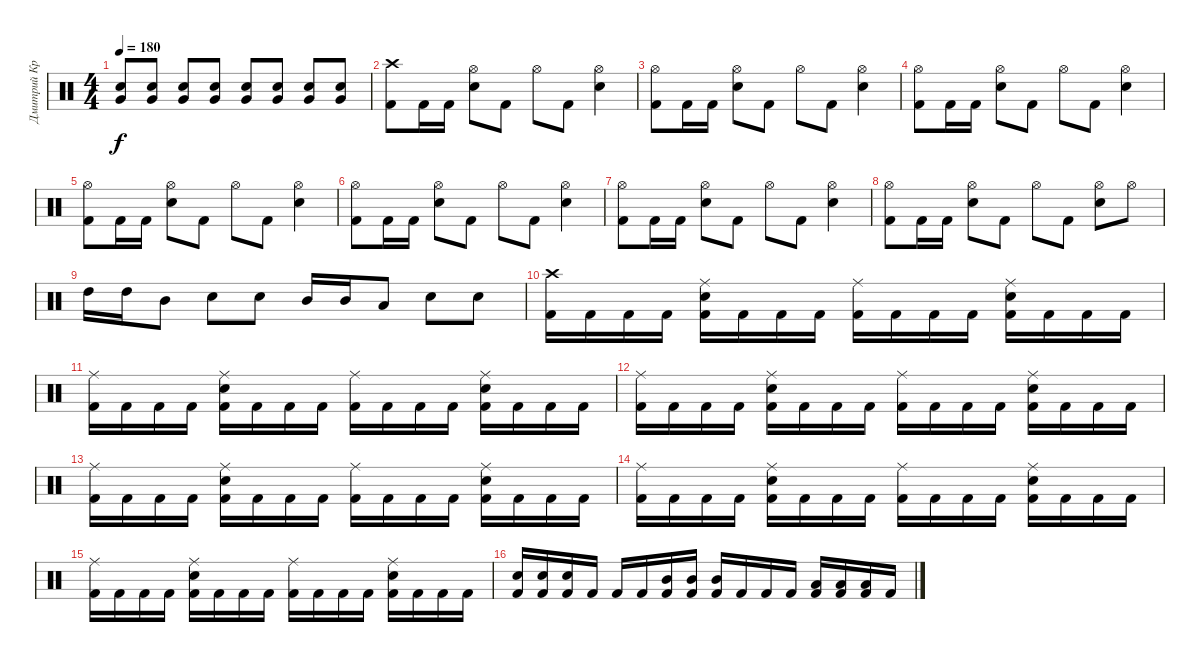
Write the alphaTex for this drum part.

\track ("Дмитрий Кривенков" "Дмитрий Кр") {instrument percussion}
\staff {score}
\articulation defaults
\ts (4 4)
\tempo 180
\clef neutral
\ks c
("Electric Snare (hit)" "Very Low Tom (hit)").8{dy f} ("Electric Snare (hit)" "Very Low Tom (hit)").8 ("Electric Snare (hit)" "Very Low Tom (hit)").8 ("Electric Snare (hit)" "Very Low Tom (hit)").8 ("Electric Snare (hit)" "Very Low Tom (hit)").8 ("Electric Snare (hit)" "Very Low Tom (hit)").8 ("Electric Snare (hit)" "Very Low Tom (hit)").8 ("Electric Snare (hit)" "Very Low Tom (hit)").8 |
("Crash high (hit)" "Kick (hit) 2").8 "Kick (hit) 2".16 "Kick (hit) 2".16 ("Hi-Hat (open)" "Electric Snare (hit)").8 "Kick (hit) 2".8 "Hi-Hat (open)".8 "Kick (hit) 2".8 ("Hi-Hat (open)" "Electric Snare (hit)").4 |
("Hi-Hat (open)" "Kick (hit) 2").8 "Kick (hit) 2".16 "Kick (hit) 2".16 ("Hi-Hat (open)" "Electric Snare (hit)").8 "Kick (hit) 2".8 "Hi-Hat (open)".8 "Kick (hit) 2".8 ("Hi-Hat (open)" "Electric Snare (hit)").4 |
("Hi-Hat (open)" "Kick (hit) 2").8 "Kick (hit) 2".16 "Kick (hit) 2".16 ("Hi-Hat (open)" "Electric Snare (hit)").8 "Kick (hit) 2".8 "Hi-Hat (open)".8 "Kick (hit) 2".8 ("Hi-Hat (open)" "Electric Snare (hit)").4 |
("Hi-Hat (open)" "Kick (hit) 2").8 "Kick (hit) 2".16 "Kick (hit) 2".16 ("Hi-Hat (open)" "Electric Snare (hit)").8 "Kick (hit) 2".8 "Hi-Hat (open)".8 "Kick (hit) 2".8 ("Hi-Hat (open)" "Electric Snare (hit)").4 |
("Hi-Hat (open)" "Kick (hit) 2").8 "Kick (hit) 2".16 "Kick (hit) 2".16 ("Hi-Hat (open)" "Electric Snare (hit)").8 "Kick (hit) 2".8 "Hi-Hat (open)".8 "Kick (hit) 2".8 ("Hi-Hat (open)" "Electric Snare (hit)").4 |
("Hi-Hat (open)" "Kick (hit) 2").8 "Kick (hit) 2".16 "Kick (hit) 2".16 ("Hi-Hat (open)" "Electric Snare (hit)").8 "Kick (hit) 2".8 "Hi-Hat (open)".8 "Kick (hit) 2".8 ("Hi-Hat (open)" "Electric Snare (hit)").4 |
("Hi-Hat (open)" "Kick (hit) 2").8 "Kick (hit) 2".16 "Kick (hit) 2".16 ("Hi-Hat (open)" "Electric Snare (hit)").8 "Kick (hit) 2".8 "Hi-Hat (open)".8 "Kick (hit) 2".8 ("Hi-Hat (open)" "Electric Snare (hit)").8 "Hi-Hat (open)".8 |
"High Tom (hit)".16 "High Tom (hit)".16 "Mid Tom (hit)".8 "Electric Snare (hit)".8 "Electric Snare (hit)".8 "Mid Tom (hit)".16 "Mid Tom (hit)".16 "Low Tom (hit)".8 "Electric Snare (hit)".8 "Electric Snare (hit)".8 |
("Crash high (hit)" "Kick (hit) 2").16 "Kick (hit) 2".16 "Kick (hit) 2".16 "Kick (hit) 2".16 ("Ride (middle)" "Electric Snare (hit)" "Kick (hit) 2").16 "Kick (hit) 2".16 "Kick (hit) 2".16 "Kick (hit) 2".16 ("Ride (middle)" "Kick (hit) 2").16 "Kick (hit) 2".16 "Kick (hit) 2".16 "Kick (hit) 2".16 ("Ride (middle)" "Electric Snare (hit)" "Kick (hit) 2").16 "Kick (hit) 2".16 "Kick (hit) 2".16 "Kick (hit) 2".16 |
("Ride (middle)" "Kick (hit) 2").16 "Kick (hit) 2".16 "Kick (hit) 2".16 "Kick (hit) 2".16 ("Ride (middle)" "Electric Snare (hit)" "Kick (hit) 2").16 "Kick (hit) 2".16 "Kick (hit) 2".16 "Kick (hit) 2".16 ("Ride (middle)" "Kick (hit) 2").16 "Kick (hit) 2".16 "Kick (hit) 2".16 "Kick (hit) 2".16 ("Ride (middle)" "Electric Snare (hit)" "Kick (hit) 2").16 "Kick (hit) 2".16 "Kick (hit) 2".16 "Kick (hit) 2".16 |
("Ride (middle)" "Kick (hit) 2").16 "Kick (hit) 2".16 "Kick (hit) 2".16 "Kick (hit) 2".16 ("Ride (middle)" "Electric Snare (hit)" "Kick (hit) 2").16 "Kick (hit) 2".16 "Kick (hit) 2".16 "Kick (hit) 2".16 ("Ride (middle)" "Kick (hit) 2").16 "Kick (hit) 2".16 "Kick (hit) 2".16 "Kick (hit) 2".16 ("Ride (middle)" "Electric Snare (hit)" "Kick (hit) 2").16 "Kick (hit) 2".16 "Kick (hit) 2".16 "Kick (hit) 2".16 |
("Ride (middle)" "Kick (hit) 2").16 "Kick (hit) 2".16 "Kick (hit) 2".16 "Kick (hit) 2".16 ("Ride (middle)" "Electric Snare (hit)" "Kick (hit) 2").16 "Kick (hit) 2".16 "Kick (hit) 2".16 "Kick (hit) 2".16 ("Ride (middle)" "Kick (hit) 2").16 "Kick (hit) 2".16 "Kick (hit) 2".16 "Kick (hit) 2".16 ("Ride (middle)" "Electric Snare (hit)" "Kick (hit) 2").16 "Kick (hit) 2".16 "Kick (hit) 2".16 "Kick (hit) 2".16 |
("Ride (middle)" "Kick (hit) 2").16 "Kick (hit) 2".16 "Kick (hit) 2".16 "Kick (hit) 2".16 ("Ride (middle)" "Electric Snare (hit)" "Kick (hit) 2").16 "Kick (hit) 2".16 "Kick (hit) 2".16 "Kick (hit) 2".16 ("Ride (middle)" "Kick (hit) 2").16 "Kick (hit) 2".16 "Kick (hit) 2".16 "Kick (hit) 2".16 ("Ride (middle)" "Electric Snare (hit)" "Kick (hit) 2").16 "Kick (hit) 2".16 "Kick (hit) 2".16 "Kick (hit) 2".16 |
("Ride (middle)" "Kick (hit) 2").16 "Kick (hit) 2".16 "Kick (hit) 2".16 "Kick (hit) 2".16 ("Ride (middle)" "Electric Snare (hit)" "Kick (hit) 2").16 "Kick (hit) 2".16 "Kick (hit) 2".16 "Kick (hit) 2".16 ("Ride (middle)" "Kick (hit) 2").16 "Kick (hit) 2".16 "Kick (hit) 2".16 "Kick (hit) 2".16 ("Ride (middle)" "Electric Snare (hit)" "Kick (hit) 2").16 "Kick (hit) 2".16 "Kick (hit) 2".16 "Kick (hit) 2".16 |
("Electric Snare (hit)" "Kick (hit) 2").16 ("Electric Snare (hit)" "Kick (hit) 2").16 ("Electric Snare (hit)" "Kick (hit) 2").16 "Kick (hit) 2".16 "Kick (hit) 2".16 "Kick (hit) 2".16 ("Mid Tom (hit)" "Kick (hit) 2").16 ("Mid Tom (hit)" "Kick (hit) 2").16 ("Mid Tom (hit)" "Kick (hit) 2").16 "Kick (hit) 2".16 "Kick (hit) 2".16 "Kick (hit) 2".16 ("Low Tom (hit)" "Kick (hit) 2").16 ("Low Tom (hit)" "Kick (hit) 2").16 ("Low Tom (hit)" "Kick (hit) 2").16 "Kick (hit) 2".16
